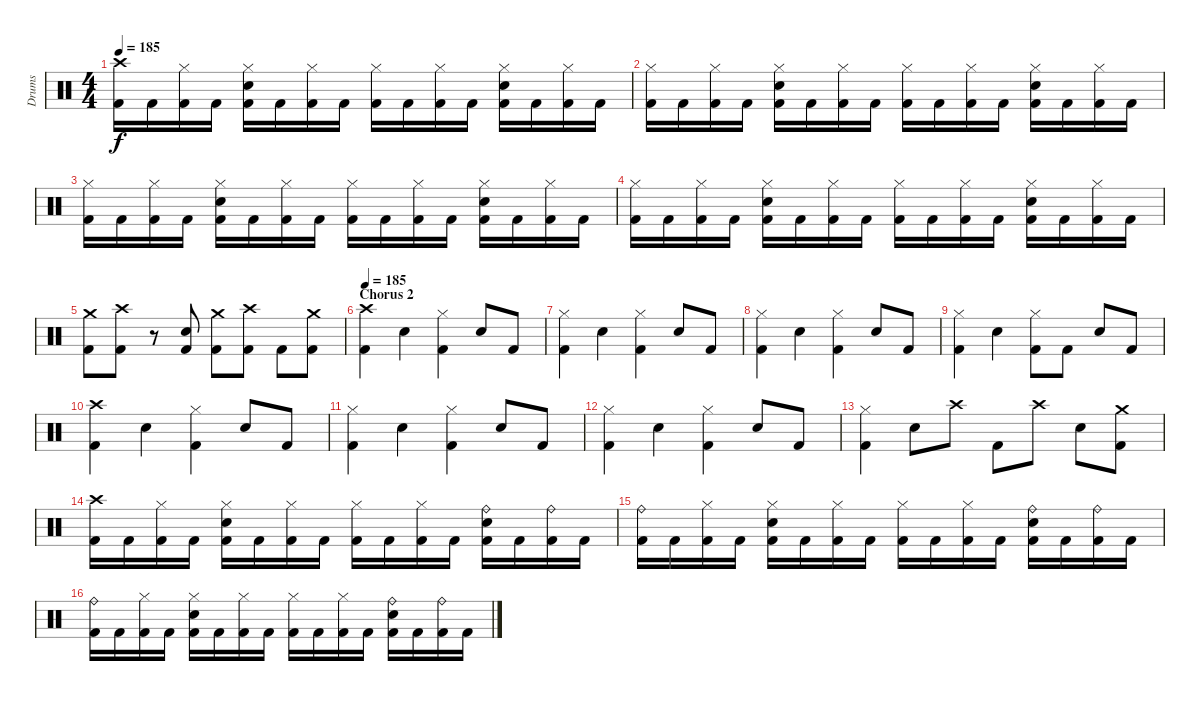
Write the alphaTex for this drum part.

\track ("Drums" "Drums") {instrument percussion}
\staff {score}
\articulation defaults
\ts (4 4)
\tempo 185
\clef neutral
\ks c
("Crash high (hit)" "Kick (hit) 2").16{dy f} "Kick (hit) 2".16 ("Hi-Hat (closed)" "Kick (hit) 2").16 "Kick (hit) 2".16 ("Hi-Hat (closed)" "Electric Snare (hit)" "Kick (hit) 2").16 "Kick (hit) 2".16 ("Hi-Hat (closed)" "Kick (hit) 2").16 "Kick (hit) 2".16 ("Hi-Hat (closed)" "Kick (hit) 2").16 "Kick (hit) 2".16 ("Hi-Hat (closed)" "Kick (hit) 2").16 "Kick (hit) 2".16 ("Hi-Hat (closed)" "Electric Snare (hit)" "Kick (hit) 2").16 "Kick (hit) 2".16 ("Hi-Hat (closed)" "Kick (hit) 2").16 "Kick (hit) 2".16 |
("Hi-Hat (closed)" "Kick (hit) 2").16 "Kick (hit) 2".16 ("Hi-Hat (closed)" "Kick (hit) 2").16 "Kick (hit) 2".16 ("Hi-Hat (closed)" "Electric Snare (hit)" "Kick (hit) 2").16 "Kick (hit) 2".16 ("Hi-Hat (closed)" "Kick (hit) 2").16 "Kick (hit) 2".16 ("Hi-Hat (closed)" "Kick (hit) 2").16 "Kick (hit) 2".16 ("Hi-Hat (closed)" "Kick (hit) 2").16 "Kick (hit) 2".16 ("Hi-Hat (closed)" "Electric Snare (hit)" "Kick (hit) 2").16 "Kick (hit) 2".16 ("Hi-Hat (closed)" "Kick (hit) 2").16 "Kick (hit) 2".16 |
("Hi-Hat (closed)" "Kick (hit) 2").16 "Kick (hit) 2".16 ("Hi-Hat (closed)" "Kick (hit) 2").16 "Kick (hit) 2".16 ("Hi-Hat (closed)" "Electric Snare (hit)" "Kick (hit) 2").16 "Kick (hit) 2".16 ("Hi-Hat (closed)" "Kick (hit) 2").16 "Kick (hit) 2".16 ("Hi-Hat (closed)" "Kick (hit) 2").16 "Kick (hit) 2".16 ("Hi-Hat (closed)" "Kick (hit) 2").16 "Kick (hit) 2".16 ("Hi-Hat (closed)" "Electric Snare (hit)" "Kick (hit) 2").16 "Kick (hit) 2".16 ("Hi-Hat (closed)" "Kick (hit) 2").16 "Kick (hit) 2".16 |
("Hi-Hat (closed)" "Kick (hit) 2").16 "Kick (hit) 2".16 ("Hi-Hat (closed)" "Kick (hit) 2").16 "Kick (hit) 2".16 ("Hi-Hat (closed)" "Electric Snare (hit)" "Kick (hit) 2").16 "Kick (hit) 2".16 ("Hi-Hat (closed)" "Kick (hit) 2").16 "Kick (hit) 2".16 ("Hi-Hat (closed)" "Kick (hit) 2").16 "Kick (hit) 2".16 ("Hi-Hat (closed)" "Kick (hit) 2").16 "Kick (hit) 2".16 ("Hi-Hat (closed)" "Electric Snare (hit)" "Kick (hit) 2").16 "Kick (hit) 2".16 ("Hi-Hat (closed)" "Kick (hit) 2").16 "Kick (hit) 2".16 |
("Crash medium (hit)" "Kick (hit) 2").8 ("Crash high (hit)" "Kick (hit) 2").8 r.8 ("Electric Snare (hit)" "Kick (hit) 2").8 ("Crash medium (hit)" "Kick (hit) 2").8 ("Crash high (hit)" "Kick (hit) 2").8 "Kick (hit) 2".8 ("Crash medium (hit)" "Kick (hit) 2").8 |
\section ("" "Chorus 2")
\tempo 185
("Crash high (hit)" "Kick (hit) 2").4 "Electric Snare (hit)".4 ("Hi-Hat (closed)" "Kick (hit) 2").4 "Electric Snare (hit)".8 "Kick (hit) 2".8 |
("Hi-Hat (closed)" "Kick (hit) 2").4 "Electric Snare (hit)".4 ("Hi-Hat (closed)" "Kick (hit) 2").4 "Electric Snare (hit)".8 "Kick (hit) 2".8 |
("Hi-Hat (closed)" "Kick (hit) 2").4 "Electric Snare (hit)".4 ("Hi-Hat (closed)" "Kick (hit) 2").4 "Electric Snare (hit)".8 "Kick (hit) 2".8 |
("Hi-Hat (closed)" "Kick (hit) 2").4 "Electric Snare (hit)".4 ("Hi-Hat (closed)" "Kick (hit) 2").8 "Kick (hit) 2".8 "Electric Snare (hit)".8 "Kick (hit) 2".8 |
("Crash high (hit)" "Kick (hit) 2").4 "Electric Snare (hit)".4 ("Hi-Hat (closed)" "Kick (hit) 2").4 "Electric Snare (hit)".8 "Kick (hit) 2".8 |
("Hi-Hat (closed)" "Kick (hit) 2").4 "Electric Snare (hit)".4 ("Hi-Hat (closed)" "Kick (hit) 2").4 "Electric Snare (hit)".8 "Kick (hit) 2".8 |
("Hi-Hat (closed)" "Kick (hit) 2").4 "Electric Snare (hit)".4 ("Hi-Hat (closed)" "Kick (hit) 2").4 "Electric Snare (hit)".8 "Kick (hit) 2".8 |
("Hi-Hat (closed)" "Kick (hit) 2").4 "Electric Snare (hit)".8 "Crash high (hit)".8 "Kick (hit) 2".8 "Crash high (hit)".8 "Electric Snare (hit)".8 ("Crash medium (hit)" "Kick (hit) 2").8 |
("Crash high (hit)" "Kick (hit) 2").16 "Kick (hit) 2".16 ("Hi-Hat (closed)" "Kick (hit) 2").16 "Kick (hit) 2".16 ("Hi-Hat (closed)" "Electric Snare (hit)" "Kick (hit) 2").16 "Kick (hit) 2".16 ("Hi-Hat (closed)" "Kick (hit) 2").16 "Kick (hit) 2".16 ("Hi-Hat (closed)" "Kick (hit) 2").16 "Kick (hit) 2".16 ("Hi-Hat (closed)" "Kick (hit) 2").16 "Kick (hit) 2".16 ("Ride (bell)" "Electric Snare (hit)" "Kick (hit) 2").16 "Kick (hit) 2".16 ("Ride (bell)" "Kick (hit) 2").16 "Kick (hit) 2".16 |
("Ride (bell)" "Kick (hit) 2").16 "Kick (hit) 2".16 ("Hi-Hat (closed)" "Kick (hit) 2").16 "Kick (hit) 2".16 ("Hi-Hat (closed)" "Electric Snare (hit)" "Kick (hit) 2").16 "Kick (hit) 2".16 ("Hi-Hat (closed)" "Kick (hit) 2").16 "Kick (hit) 2".16 ("Hi-Hat (closed)" "Kick (hit) 2").16 "Kick (hit) 2".16 ("Hi-Hat (closed)" "Kick (hit) 2").16 "Kick (hit) 2".16 ("Ride (bell)" "Electric Snare (hit)" "Kick (hit) 2").16 "Kick (hit) 2".16 ("Ride (bell)" "Kick (hit) 2").16 "Kick (hit) 2".16 |
("Ride (bell)" "Kick (hit) 2").16 "Kick (hit) 2".16 ("Hi-Hat (closed)" "Kick (hit) 2").16 "Kick (hit) 2".16 ("Hi-Hat (closed)" "Electric Snare (hit)" "Kick (hit) 2").16 "Kick (hit) 2".16 ("Hi-Hat (closed)" "Kick (hit) 2").16 "Kick (hit) 2".16 ("Hi-Hat (closed)" "Kick (hit) 2").16 "Kick (hit) 2".16 ("Hi-Hat (closed)" "Kick (hit) 2").16 "Kick (hit) 2".16 ("Ride (bell)" "Electric Snare (hit)" "Kick (hit) 2").16 "Kick (hit) 2".16 ("Ride (bell)" "Kick (hit) 2").16 "Kick (hit) 2".16
